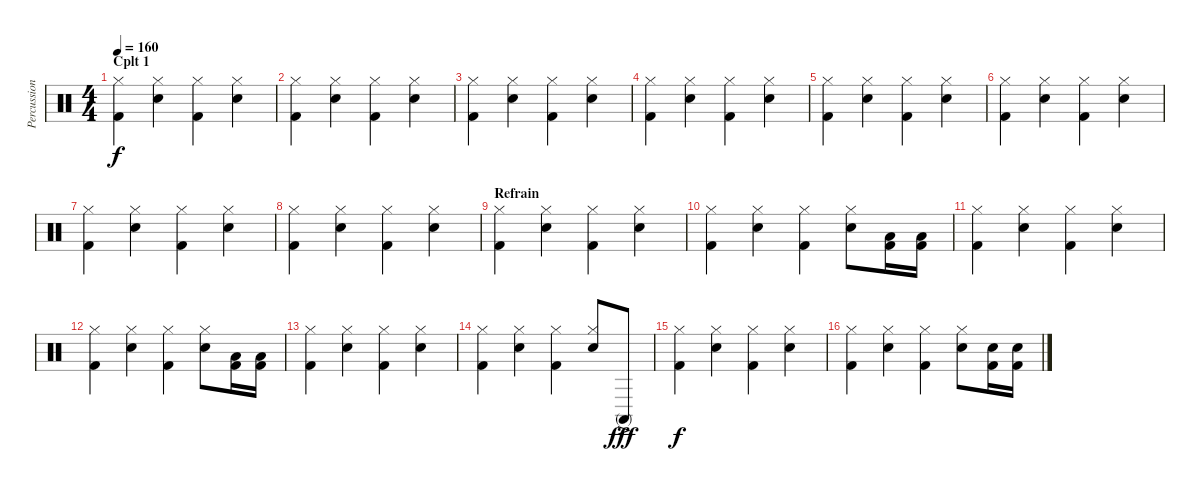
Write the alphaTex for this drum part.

\track ("Percussions" "Percussion") {instrument percussion}
\staff {score}
\articulation defaults
\ts (4 4)
\section ("" "Cplt 1")
\tempo 160
\clef neutral
\ks c
("Hi-Hat (closed)" "Kick (hit) 2").4{dy f} ("Hi-Hat (closed)" "Snare (hit) 2").4 ("Hi-Hat (closed)" "Kick (hit) 2").4 ("Hi-Hat (closed)" "Snare (hit) 2").4 |
("Hi-Hat (closed)" "Kick (hit) 2").4 ("Hi-Hat (closed)" "Snare (hit) 2").4 ("Hi-Hat (closed)" "Kick (hit) 2").4 ("Hi-Hat (closed)" "Snare (hit) 2").4 |
("Hi-Hat (closed)" "Kick (hit) 2").4 ("Hi-Hat (closed)" "Snare (hit) 2").4 ("Hi-Hat (closed)" "Kick (hit) 2").4 ("Hi-Hat (closed)" "Snare (hit) 2").4 |
("Hi-Hat (closed)" "Kick (hit) 2").4 ("Hi-Hat (closed)" "Snare (hit) 2").4 ("Hi-Hat (closed)" "Kick (hit) 2").4 ("Hi-Hat (closed)" "Snare (hit) 2").4 |
("Hi-Hat (closed)" "Kick (hit) 2").4 ("Hi-Hat (closed)" "Snare (hit) 2").4 ("Hi-Hat (closed)" "Kick (hit) 2").4 ("Hi-Hat (closed)" "Snare (hit) 2").4 |
("Hi-Hat (closed)" "Kick (hit) 2").4 ("Hi-Hat (closed)" "Snare (hit) 2").4 ("Hi-Hat (closed)" "Kick (hit) 2").4 ("Hi-Hat (closed)" "Snare (hit) 2").4 |
("Hi-Hat (closed)" "Kick (hit) 2").4 ("Hi-Hat (closed)" "Snare (hit) 2").4 ("Hi-Hat (closed)" "Kick (hit) 2").4 ("Hi-Hat (closed)" "Snare (hit) 2").4 |
("Hi-Hat (closed)" "Kick (hit) 2").4 ("Hi-Hat (closed)" "Snare (hit) 2").4 ("Hi-Hat (closed)" "Kick (hit) 2").4 ("Hi-Hat (closed)" "Snare (hit) 2").4 |
\section ("" "Refrain")
("Hi-Hat (closed)" "Kick (hit) 2").4 ("Hi-Hat (closed)" "Snare (hit) 2").4 ("Hi-Hat (closed)" "Kick (hit) 2").4 ("Hi-Hat (closed)" "Snare (hit) 2").4 |
("Hi-Hat (closed)" "Kick (hit) 2").4 ("Hi-Hat (closed)" "Snare (hit) 2").4 ("Hi-Hat (closed)" "Kick (hit) 2").4 ("Hi-Hat (closed)" "Snare (hit) 2").8 ("Low Tom (hit)" "Kick (hit) 2").16 ("Low Floor Tom (hit)" "Kick (hit) 2").16 |
("Hi-Hat (closed)" "Kick (hit) 2").4 ("Hi-Hat (closed)" "Snare (hit) 2").4 ("Hi-Hat (closed)" "Kick (hit) 2").4 ("Hi-Hat (closed)" "Snare (hit) 2").4 |
("Hi-Hat (closed)" "Kick (hit) 2").4 ("Hi-Hat (closed)" "Snare (hit) 2").4 ("Hi-Hat (closed)" "Kick (hit) 2").4 ("Hi-Hat (closed)" "Snare (hit) 2").8 ("Low Tom (hit)" "Kick (hit) 2").16 ("Low Floor Tom (hit)" "Kick (hit) 2").16 |
("Hi-Hat (closed)" "Kick (hit) 2").4 ("Hi-Hat (closed)" "Snare (hit) 2").4 ("Hi-Hat (closed)" "Kick (hit) 2").4 ("Hi-Hat (closed)" "Snare (hit) 2").4 |
("Hi-Hat (closed)" "Kick (hit) 2").4 ("Hi-Hat (closed)" "Snare (hit) 2").4 ("Hi-Hat (closed)" "Kick (hit) 2").4 ("Hi-Hat (closed)" "Snare (hit) 2").8 "Conga high (mute)"{ac}.8{dy fff} |
("Hi-Hat (closed)" "Kick (hit) 2").4{dy f} ("Hi-Hat (closed)" "Snare (hit) 2").4 ("Hi-Hat (closed)" "Kick (hit) 2").4 ("Hi-Hat (closed)" "Snare (hit) 2").4 |
("Hi-Hat (closed)" "Kick (hit) 2").4 ("Hi-Hat (closed)" "Snare (hit) 2").4 ("Hi-Hat (closed)" "Kick (hit) 2").4 ("Hi-Hat (closed)" "Snare (hit) 2").8 ("Snare (hit) 2" "Kick (hit) 2").16 ("Snare (hit) 2" "Kick (hit) 2").16
